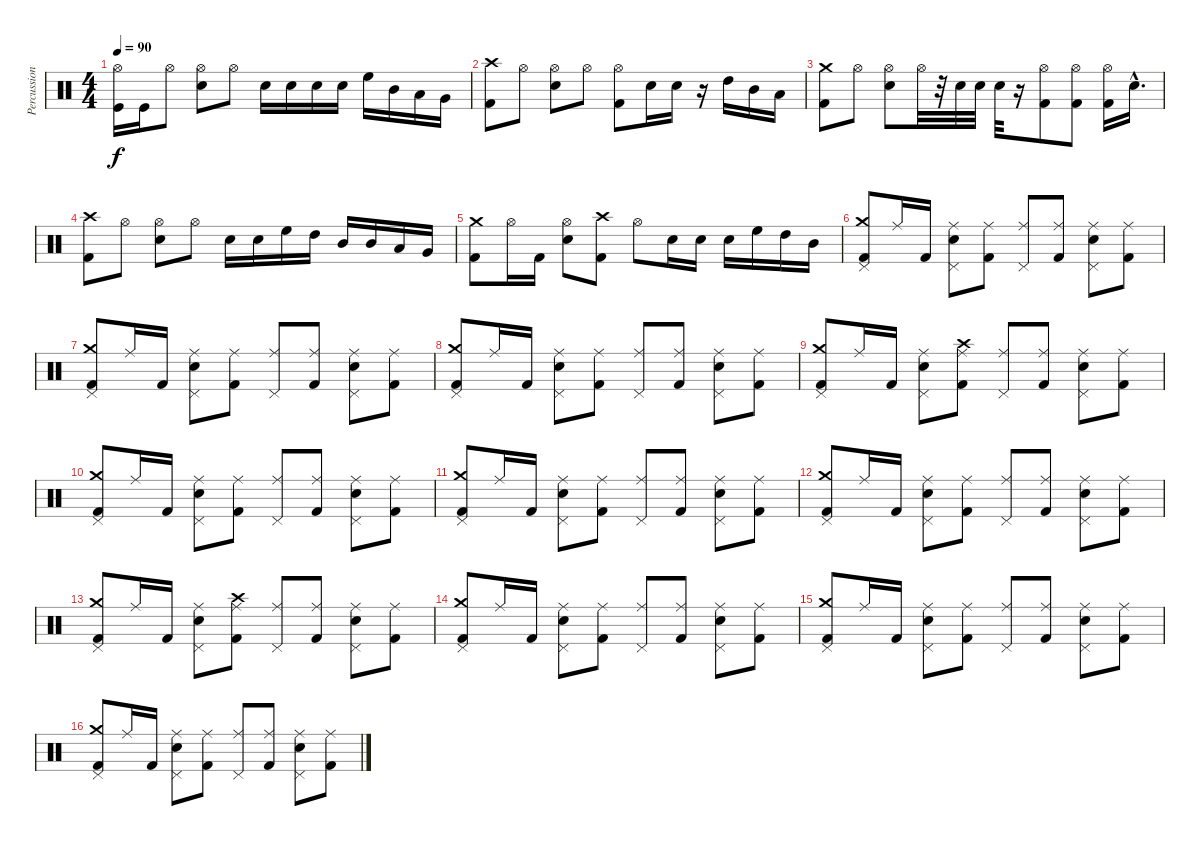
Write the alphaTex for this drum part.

\track ("Percussions" "Percussion") {instrument percussion}
\staff {score}
\articulation defaults
\ts (4 4)
\tempo 90
\clef neutral
\ks c
("Hi-Hat (open)" "Kick (hit)").16{dy f} "Kick (hit)".16 "Hi-Hat (open)".8 ("Hi-Hat (open)" "Electric Snare (hit)").8 "Hi-Hat (open)".8 "Electric Snare (hit)".16 "Electric Snare (hit)".16 "Electric Snare (hit)".16 "Electric Snare (hit)".16 "High Floor Tom (hit)".16 "Mid Tom (hit)".16 "Low Tom (hit)".16 "Very Low Tom (hit)".16 |
("Crash high (hit)" "Kick (hit) 2").8 "Hi-Hat (open)".8 ("Hi-Hat (open)" "Electric Snare (hit)").8 "Hi-Hat (open)".8 ("Hi-Hat (open)" "Kick (hit) 2").8 "Electric Snare (hit)".16 "Electric Snare (hit)".16 r.16 "High Tom (hit)".16 "Mid Tom (hit)".16 "Low Tom (hit)".16 |
("Crash medium (hit)" "Kick (hit) 2").8 "Hi-Hat (open)".8 ("Hi-Hat (open)" "Electric Snare (hit)").8 "Hi-Hat (open)".32 r.32 "Electric Snare (hit)".32 "Electric Snare (hit)".32 "Electric Snare (hit)".32 r.16 ("Hi-Hat (open)" "Kick (hit) 2").8 ("Hi-Hat (open)" "Kick (hit) 2").8 ("Hi-Hat (open)" "Kick (hit) 2").16 "Electric Snare (hit)"{hac}.16{d} |
("Crash high (hit)" "Kick (hit) 2").8 "Hi-Hat (open)".8 ("Hi-Hat (open)" "Electric Snare (hit)").8 "Hi-Hat (open)".8 "Electric Snare (hit)".16 "Electric Snare (hit)".16 "High Floor Tom (hit)".16 "High Tom (hit)".16 "Mid Tom (hit)".16 "Mid Tom (hit)".16 "Low Tom (hit)".16 "Very Low Tom (hit)".16 |
("Crash medium (hit)" "Kick (hit) 2").8 "Hi-Hat (open)".16 "Kick (hit) 2".16 ("Hi-Hat (open)" "Electric Snare (hit)").8 ("Crash high (hit)" "Kick (hit) 2").8 "Hi-Hat (open)".8 "Electric Snare (hit)".16 "Electric Snare (hit)".16 "Electric Snare (hit)".16 "High Floor Tom (hit)".16 "High Tom (hit)".16 "Mid Tom (hit)".16 |
("Crash medium (hit)" "Pedal Hi-Hat (hit)" "Kick (hit) 2").8 "Ride (middle)".16 "Kick (hit) 2".16 ("Pedal Hi-Hat (hit)" "Ride (middle)" "Electric Snare (hit)").8 ("Ride (middle)" "Kick (hit) 2").8 ("Pedal Hi-Hat (hit)" "Ride (middle)").8 ("Ride (middle)" "Kick (hit) 2").8 ("Pedal Hi-Hat (hit)" "Ride (middle)" "Electric Snare (hit)").8 ("Ride (middle)" "Kick (hit) 2").8 |
("Crash medium (hit)" "Pedal Hi-Hat (hit)" "Kick (hit) 2").8 "Ride (middle)".16 "Kick (hit) 2".16 ("Pedal Hi-Hat (hit)" "Ride (middle)" "Electric Snare (hit)").8 ("Ride (middle)" "Kick (hit) 2").8 ("Pedal Hi-Hat (hit)" "Ride (middle)").8 ("Ride (middle)" "Kick (hit) 2").8 ("Pedal Hi-Hat (hit)" "Ride (middle)" "Electric Snare (hit)").8 ("Ride (middle)" "Kick (hit) 2").8 |
("Crash medium (hit)" "Pedal Hi-Hat (hit)" "Kick (hit) 2").8 "Ride (middle)".16 "Kick (hit) 2".16 ("Pedal Hi-Hat (hit)" "Ride (middle)" "Electric Snare (hit)").8 ("Ride (middle)" "Kick (hit) 2").8 ("Pedal Hi-Hat (hit)" "Ride (middle)").8 ("Ride (middle)" "Kick (hit) 2").8 ("Pedal Hi-Hat (hit)" "Ride (middle)" "Electric Snare (hit)").8 ("Ride (middle)" "Kick (hit) 2").8 |
("Crash medium (hit)" "Pedal Hi-Hat (hit)" "Kick (hit) 2").8 "Ride (middle)".16 "Kick (hit) 2".16 ("Pedal Hi-Hat (hit)" "Ride (middle)" "Electric Snare (hit)").8 ("Crash high (hit)" "Ride (middle)" "Kick (hit) 2").8 ("Pedal Hi-Hat (hit)" "Ride (middle)").8 ("Ride (middle)" "Kick (hit) 2").8 ("Pedal Hi-Hat (hit)" "Ride (middle)" "Electric Snare (hit)").8 ("Ride (middle)" "Kick (hit) 2").8 |
("Crash medium (hit)" "Pedal Hi-Hat (hit)" "Kick (hit) 2").8 "Ride (middle)".16 "Kick (hit) 2".16 ("Pedal Hi-Hat (hit)" "Ride (middle)" "Electric Snare (hit)").8 ("Ride (middle)" "Kick (hit) 2").8 ("Pedal Hi-Hat (hit)" "Ride (middle)").8 ("Ride (middle)" "Kick (hit) 2").8 ("Pedal Hi-Hat (hit)" "Ride (middle)" "Electric Snare (hit)").8 ("Ride (middle)" "Kick (hit) 2").8 |
("Crash medium (hit)" "Pedal Hi-Hat (hit)" "Kick (hit) 2").8 "Ride (middle)".16 "Kick (hit) 2".16 ("Pedal Hi-Hat (hit)" "Ride (middle)" "Electric Snare (hit)").8 ("Ride (middle)" "Kick (hit) 2").8 ("Pedal Hi-Hat (hit)" "Ride (middle)").8 ("Ride (middle)" "Kick (hit) 2").8 ("Pedal Hi-Hat (hit)" "Ride (middle)" "Electric Snare (hit)").8 ("Ride (middle)" "Kick (hit) 2").8 |
("Crash medium (hit)" "Pedal Hi-Hat (hit)" "Kick (hit) 2").8 "Ride (middle)".16 "Kick (hit) 2".16 ("Pedal Hi-Hat (hit)" "Ride (middle)" "Electric Snare (hit)").8 ("Ride (middle)" "Kick (hit) 2").8 ("Pedal Hi-Hat (hit)" "Ride (middle)").8 ("Ride (middle)" "Kick (hit) 2").8 ("Pedal Hi-Hat (hit)" "Ride (middle)" "Electric Snare (hit)").8 ("Ride (middle)" "Kick (hit) 2").8 |
("Crash medium (hit)" "Pedal Hi-Hat (hit)" "Kick (hit) 2").8 "Ride (middle)".16 "Kick (hit) 2".16 ("Pedal Hi-Hat (hit)" "Ride (middle)" "Electric Snare (hit)").8 ("Crash high (hit)" "Ride (middle)" "Kick (hit) 2").8 ("Pedal Hi-Hat (hit)" "Ride (middle)").8 ("Ride (middle)" "Kick (hit) 2").8 ("Pedal Hi-Hat (hit)" "Ride (middle)" "Electric Snare (hit)").8 ("Ride (middle)" "Kick (hit) 2").8 |
("Crash medium (hit)" "Pedal Hi-Hat (hit)" "Kick (hit) 2").8 "Ride (middle)".16 "Kick (hit) 2".16 ("Pedal Hi-Hat (hit)" "Ride (middle)" "Electric Snare (hit)").8 ("Ride (middle)" "Kick (hit) 2").8 ("Pedal Hi-Hat (hit)" "Ride (middle)").8 ("Ride (middle)" "Kick (hit) 2").8 ("Pedal Hi-Hat (hit)" "Ride (middle)" "Electric Snare (hit)").8 ("Ride (middle)" "Kick (hit) 2").8 |
("Crash medium (hit)" "Pedal Hi-Hat (hit)" "Kick (hit) 2").8 "Ride (middle)".16 "Kick (hit) 2".16 ("Pedal Hi-Hat (hit)" "Ride (middle)" "Electric Snare (hit)").8 ("Ride (middle)" "Kick (hit) 2").8 ("Pedal Hi-Hat (hit)" "Ride (middle)").8 ("Ride (middle)" "Kick (hit) 2").8 ("Pedal Hi-Hat (hit)" "Ride (middle)" "Electric Snare (hit)").8 ("Ride (middle)" "Kick (hit) 2").8 |
("Crash medium (hit)" "Pedal Hi-Hat (hit)" "Kick (hit) 2").8 "Ride (middle)".16 "Kick (hit) 2".16 ("Pedal Hi-Hat (hit)" "Ride (middle)" "Electric Snare (hit)").8 ("Ride (middle)" "Kick (hit) 2").8 ("Pedal Hi-Hat (hit)" "Ride (middle)").8 ("Ride (middle)" "Kick (hit) 2").8 ("Pedal Hi-Hat (hit)" "Ride (middle)" "Electric Snare (hit)").8 ("Ride (middle)" "Kick (hit) 2").8
